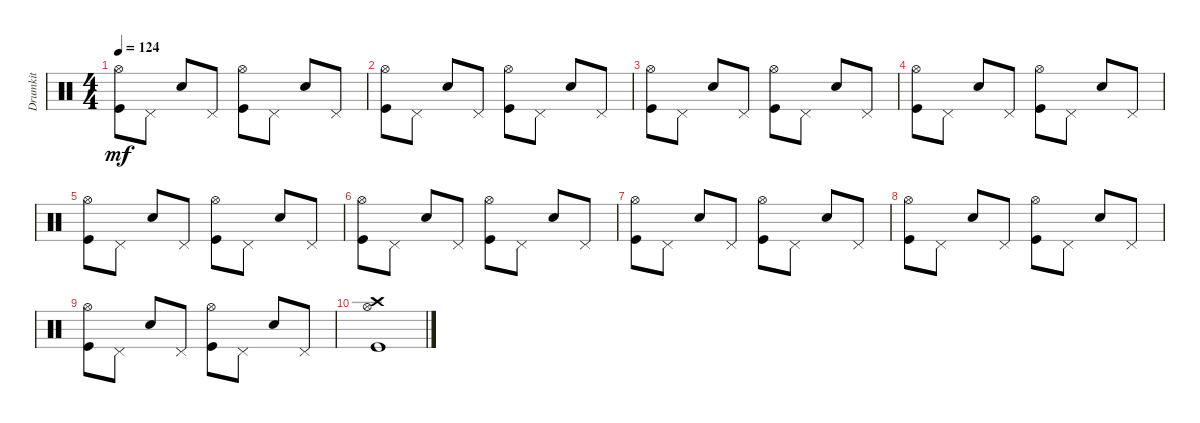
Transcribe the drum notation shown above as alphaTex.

\track ("Drumkit" "Drumkit") {instrument percussion}
\staff {score}
\articulation defaults
\ts (4 4)
\tempo 124
\clef neutral
\ks c
("Kick (hit)" "Hi-Hat (open)").8{dy mf} "Pedal Hi-Hat (hit)".8 "Snare (hit) 2".8 "Pedal Hi-Hat (hit)".8 ("Kick (hit)" "Hi-Hat (open)").8 "Pedal Hi-Hat (hit)".8 "Snare (hit) 2".8 "Pedal Hi-Hat (hit)".8 |
("Kick (hit)" "Hi-Hat (open)").8 "Pedal Hi-Hat (hit)".8 "Snare (hit) 2".8 "Pedal Hi-Hat (hit)".8 ("Kick (hit)" "Hi-Hat (open)").8 "Pedal Hi-Hat (hit)".8 "Snare (hit) 2".8 "Pedal Hi-Hat (hit)".8 |
("Kick (hit)" "Hi-Hat (open)").8 "Pedal Hi-Hat (hit)".8 "Snare (hit) 2".8 "Pedal Hi-Hat (hit)".8 ("Kick (hit)" "Hi-Hat (open)").8 "Pedal Hi-Hat (hit)".8 "Snare (hit) 2".8 "Pedal Hi-Hat (hit)".8 |
("Kick (hit)" "Hi-Hat (open)").8 "Pedal Hi-Hat (hit)".8 "Snare (hit) 2".8 "Pedal Hi-Hat (hit)".8 ("Kick (hit)" "Hi-Hat (open)").8 "Pedal Hi-Hat (hit)".8 "Snare (hit) 2".8 "Pedal Hi-Hat (hit)".8 |
("Kick (hit)" "Hi-Hat (open)").8 "Pedal Hi-Hat (hit)".8 "Snare (hit) 2".8 "Pedal Hi-Hat (hit)".8 ("Kick (hit)" "Hi-Hat (open)").8 "Pedal Hi-Hat (hit)".8 "Snare (hit) 2".8 "Pedal Hi-Hat (hit)".8 |
("Kick (hit)" "Hi-Hat (open)").8 "Pedal Hi-Hat (hit)".8 "Snare (hit) 2".8 "Pedal Hi-Hat (hit)".8 ("Kick (hit)" "Hi-Hat (open)").8 "Pedal Hi-Hat (hit)".8 "Snare (hit) 2".8 "Pedal Hi-Hat (hit)".8 |
("Kick (hit)" "Hi-Hat (open)").8 "Pedal Hi-Hat (hit)".8 "Snare (hit) 2".8 "Pedal Hi-Hat (hit)".8 ("Kick (hit)" "Hi-Hat (open)").8 "Pedal Hi-Hat (hit)".8 "Snare (hit) 2".8 "Pedal Hi-Hat (hit)".8 |
("Kick (hit)" "Hi-Hat (open)").8 "Pedal Hi-Hat (hit)".8 "Snare (hit) 2".8 "Pedal Hi-Hat (hit)".8 ("Kick (hit)" "Hi-Hat (open)").8 "Pedal Hi-Hat (hit)".8 "Snare (hit) 2".8 "Pedal Hi-Hat (hit)".8 |
("Kick (hit)" "Hi-Hat (open)").8 "Pedal Hi-Hat (hit)".8 "Snare (hit) 2".8 "Pedal Hi-Hat (hit)".8 ("Kick (hit)" "Hi-Hat (open)").8 "Pedal Hi-Hat (hit)".8 "Snare (hit) 2".8 "Pedal Hi-Hat (hit)".8 |
("Kick (hit)" "Hi-Hat (open)" "Crash high (hit)").1
